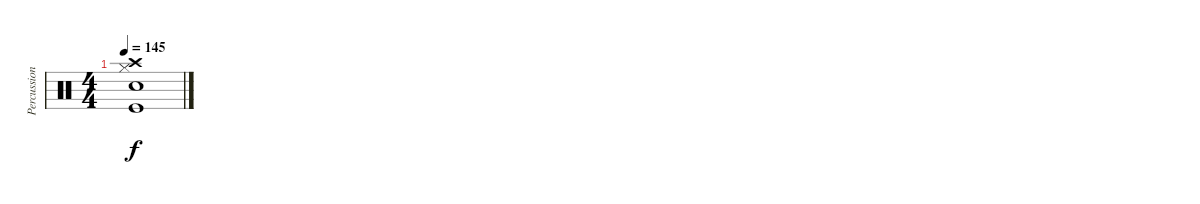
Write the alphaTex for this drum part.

\track ("Percussion" "Percussion") {instrument percussion}
\staff {score}
\articulation defaults
\ts (4 4)
\tempo 145
\clef neutral
\ks c
("Hi-Hat (closed)" "Snare (hit) 2" "Kick (hit)" "Crash high (hit)").1{dy f}
